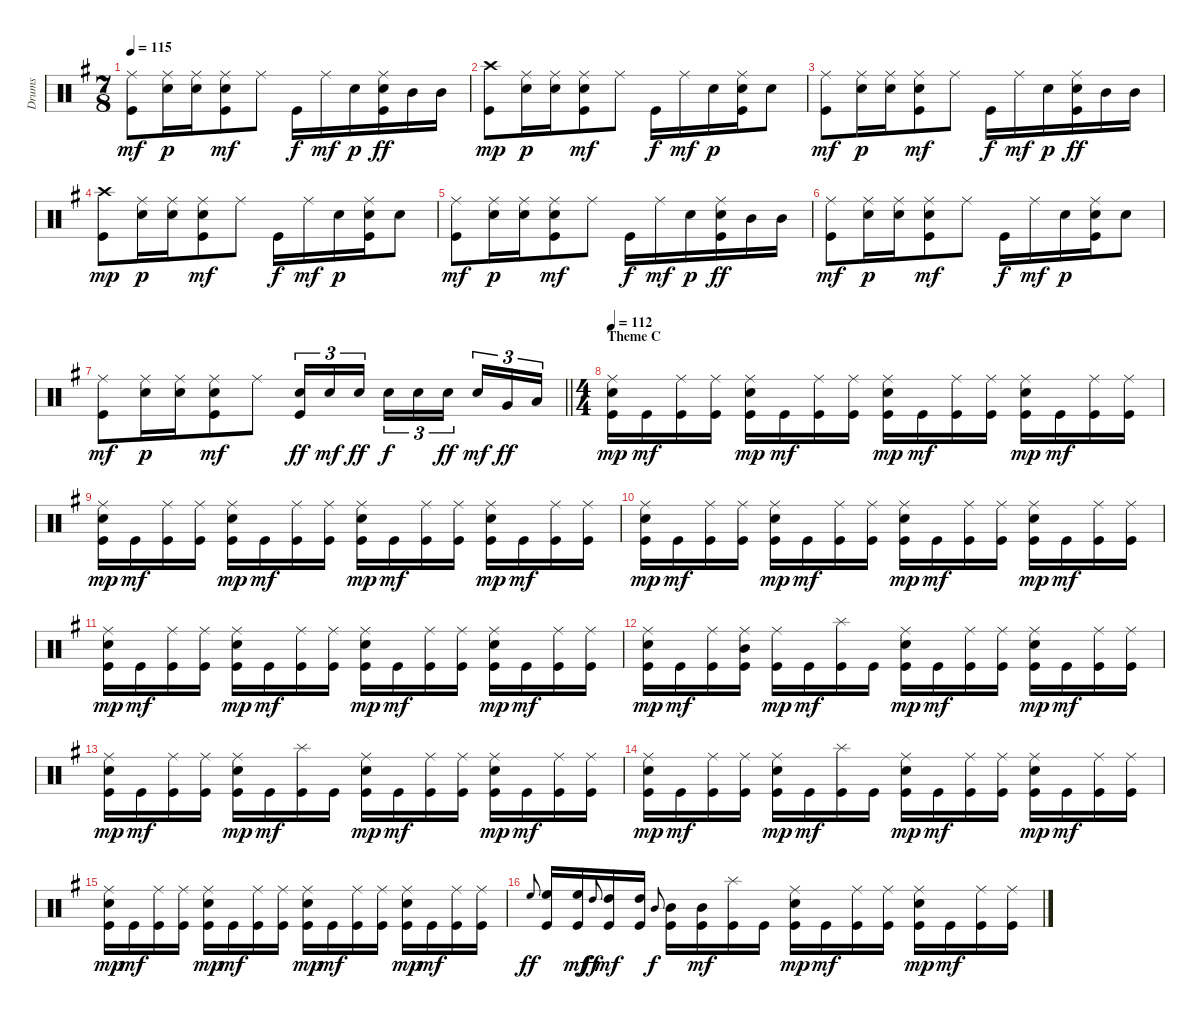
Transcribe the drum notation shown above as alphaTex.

\track ("Drums" "Drums") {instrument percussion}
\staff {score}
\articulation defaults
\ts (7 8)
\tempo 115
\clef neutral
\ks g
("Ride (middle)" "Kick (hit)").8{dy mf} ("Ride (middle)" "Snare (hit) 2").16{dy p} ("Ride (middle)" "Snare (hit) 2").16 ("Ride (middle)" "Snare (hit) 2" "Kick (hit)").8{dy mf} "Ride (middle)".8 "Kick (hit)".16{dy f} "Ride (middle)".16{dy mf} "Snare (hit) 2".16{dy p} ("Ride (middle)" "Snare (hit) 2" "Kick (hit)").16{dy ff} "Mid Tom (hit)".16 "Mid Tom (hit)".16 |
("Crash high (hit)" "Kick (hit)").8{dy mp} ("Ride (middle)" "Snare (hit) 2").16{dy p} ("Ride (middle)" "Snare (hit) 2").16 ("Ride (middle)" "Snare (hit) 2" "Kick (hit)").8{dy mf} "Ride (middle)".8 "Kick (hit)".16{dy f} "Ride (middle)".16{dy mf} "Snare (hit) 2".16{dy p} ("Ride (middle)" "Snare (hit) 2" "Kick (hit)").16 "Snare (hit) 2".8 |
("Ride (middle)" "Kick (hit)").8{dy mf} ("Ride (middle)" "Snare (hit) 2").16{dy p} ("Ride (middle)" "Snare (hit) 2").16 ("Ride (middle)" "Snare (hit) 2" "Kick (hit)").8{dy mf} "Ride (middle)".8 "Kick (hit)".16{dy f} "Ride (middle)".16{dy mf} "Snare (hit) 2".16{dy p} ("Ride (middle)" "Snare (hit) 2" "Kick (hit)").16{dy ff} "Mid Tom (hit)".16 "Mid Tom (hit)".16 |
("Crash high (hit)" "Kick (hit)").8{dy mp} ("Ride (middle)" "Snare (hit) 2").16{dy p} ("Ride (middle)" "Snare (hit) 2").16 ("Ride (middle)" "Snare (hit) 2" "Kick (hit)").8{dy mf} "Ride (middle)".8 "Kick (hit)".16{dy f} "Ride (middle)".16{dy mf} "Snare (hit) 2".16{dy p} ("Ride (middle)" "Snare (hit) 2" "Kick (hit)").16 "Snare (hit) 2".8 |
("Ride (middle)" "Kick (hit)").8{dy mf} ("Ride (middle)" "Snare (hit) 2").16{dy p} ("Ride (middle)" "Snare (hit) 2").16 ("Ride (middle)" "Snare (hit) 2" "Kick (hit)").8{dy mf} "Ride (middle)".8 "Kick (hit)".16{dy f} "Ride (middle)".16{dy mf} "Snare (hit) 2".16{dy p} ("Ride (middle)" "Snare (hit) 2" "Kick (hit)").16{dy ff} "Mid Tom (hit)".16 "Mid Tom (hit)".16 |
("Ride (middle)" "Kick (hit)").8{dy mf} ("Ride (middle)" "Snare (hit) 2").16{dy p} ("Ride (middle)" "Snare (hit) 2").16 ("Ride (middle)" "Snare (hit) 2" "Kick (hit)").8{dy mf} "Ride (middle)".8 "Kick (hit)".16{dy f} "Ride (middle)".16{dy mf} "Snare (hit) 2".16{dy p} ("Ride (middle)" "Snare (hit) 2" "Kick (hit)").16 "Snare (hit) 2".8 |
\barLineRight lightlight
("Ride (middle)" "Kick (hit)").8{dy mf} ("Ride (middle)" "Snare (hit) 2").16{dy p} ("Ride (middle)" "Snare (hit) 2").16 ("Ride (middle)" "Snare (hit) 2" "Kick (hit)").8{dy mf} "Ride (middle)".8 ("Electric Snare (hit)" "Kick (hit)").16{tu (3 2) dy ff} "Electric Snare (hit)".16{tu (3 2) dy mf} "Electric Snare (hit)".16{tu (3 2) dy ff} "Electric Snare (hit)".16{tu (3 2) dy f} "Electric Snare (hit)".16{tu (3 2)} "Electric Snare (hit)".16{tu (3 2) dy ff} "Electric Snare (hit)".16{tu (3 2) dy mf} "Very Low Tom (hit)".16{tu (3 2) dy ff} "Low Floor Tom (hit)".16{tu (3 2)} |
\ts (4 4)
\section ("" "Theme C")
\tempo 112
("Ride (middle)" "Snare (hit) 2" "Kick (hit)").16{dy mp} "Kick (hit)".16{dy mf} ("Ride (middle)" "Kick (hit)").16 ("Ride (middle)" "Kick (hit)").16 ("Ride (middle)" "Snare (hit) 2" "Kick (hit)").16{dy mp} "Kick (hit)".16{dy mf} ("Ride (middle)" "Kick (hit)").16 ("Ride (middle)" "Kick (hit)").16 ("Ride (middle)" "Snare (hit) 2" "Kick (hit)").16{dy mp} "Kick (hit)".16{dy mf} ("Ride (middle)" "Kick (hit)").16 ("Ride (middle)" "Kick (hit)").16 ("Ride (middle)" "Snare (hit) 2" "Kick (hit)").16{dy mp} "Kick (hit)".16{dy mf} ("Ride (middle)" "Kick (hit)").16 ("Ride (middle)" "Kick (hit)").16 |
("Ride (middle)" "Snare (hit) 2" "Kick (hit)").16{dy mp} "Kick (hit)".16{dy mf} ("Ride (middle)" "Kick (hit)").16 ("Ride (middle)" "Kick (hit)").16 ("Ride (middle)" "Snare (hit) 2" "Kick (hit)").16{dy mp} "Kick (hit)".16{dy mf} ("Ride (middle)" "Kick (hit)").16 ("Ride (middle)" "Kick (hit)").16 ("Ride (middle)" "Snare (hit) 2" "Kick (hit)").16{dy mp} "Kick (hit)".16{dy mf} ("Ride (middle)" "Kick (hit)").16 ("Ride (middle)" "Kick (hit)").16 ("Ride (middle)" "Snare (hit) 2" "Kick (hit)").16{dy mp} "Kick (hit)".16{dy mf} ("Ride (middle)" "Kick (hit)").16 ("Ride (middle)" "Kick (hit)").16 |
("Ride (middle)" "Snare (hit) 2" "Kick (hit)").16{dy mp} "Kick (hit)".16{dy mf} ("Ride (middle)" "Kick (hit)").16 ("Ride (middle)" "Kick (hit)").16 ("Ride (middle)" "Snare (hit) 2" "Kick (hit)").16{dy mp} "Kick (hit)".16{dy mf} ("Ride (middle)" "Kick (hit)").16 ("Ride (middle)" "Kick (hit)").16 ("Ride (middle)" "Snare (hit) 2" "Kick (hit)").16{dy mp} "Kick (hit)".16{dy mf} ("Ride (middle)" "Kick (hit)").16 ("Ride (middle)" "Kick (hit)").16 ("Ride (middle)" "Snare (hit) 2" "Kick (hit)").16{dy mp} "Kick (hit)".16{dy mf} ("Ride (middle)" "Kick (hit)").16 ("Ride (middle)" "Kick (hit)").16 |
("Ride (middle)" "Snare (hit) 2" "Kick (hit)").16{dy mp} "Kick (hit)".16{dy mf} ("Ride (middle)" "Kick (hit)").16 ("Ride (middle)" "Kick (hit)").16 ("Ride (middle)" "Snare (hit) 2" "Kick (hit)").16{dy mp} "Kick (hit)".16{dy mf} ("Ride (middle)" "Kick (hit)").16 ("Ride (middle)" "Kick (hit)").16 ("Ride (middle)" "Snare (hit) 2" "Kick (hit)").16{dy mp} "Kick (hit)".16{dy mf} ("Ride (middle)" "Kick (hit)").16 ("Ride (middle)" "Kick (hit)").16 ("Ride (middle)" "Snare (hit) 2" "Kick (hit)").16{dy mp} "Kick (hit)".16{dy mf} ("Ride (middle)" "Kick (hit)").16 ("Ride (middle)" "Kick (hit)").16 |
("Ride (middle)" "Snare (hit) 2" "Kick (hit)").16{dy mp} "Kick (hit)".16{dy mf} ("Ride (middle)" "Kick (hit)").16 ("Ride (middle)" "Mid Tom (hit)" "Kick (hit)").16 ("Ride (middle)" "Kick (hit)").16{dy mp} "Kick (hit)".16{dy mf} ("Splash (hit)" "Kick (hit)").16 "Kick (hit)".16 ("Ride (middle)" "Snare (hit) 2" "Kick (hit)").16{dy mp} "Kick (hit)".16{dy mf} ("Ride (middle)" "Kick (hit)").16 ("Ride (middle)" "Kick (hit)").16 ("Ride (middle)" "Snare (hit) 2" "Kick (hit)").16{dy mp} "Kick (hit)".16{dy mf} ("Ride (middle)" "Kick (hit)").16 ("Ride (middle)" "Kick (hit)").16 |
("Ride (middle)" "Snare (hit) 2" "Kick (hit)").16{dy mp} "Kick (hit)".16{dy mf} ("Ride (middle)" "Kick (hit)").16 ("Ride (middle)" "Kick (hit)").16 ("Ride (middle)" "Snare (hit) 2" "Kick (hit)").16{dy mp} "Kick (hit)".16{dy mf} ("Splash (hit)" "Kick (hit)").16 "Kick (hit)".16 ("Ride (middle)" "Snare (hit) 2" "Kick (hit)").16{dy mp} "Kick (hit)".16{dy mf} ("Ride (middle)" "Kick (hit)").16 ("Ride (middle)" "Kick (hit)").16 ("Ride (middle)" "Snare (hit) 2" "Kick (hit)").16{dy mp} "Kick (hit)".16{dy mf} ("Ride (middle)" "Kick (hit)").16 ("Ride (middle)" "Kick (hit)").16 |
("Ride (middle)" "Snare (hit) 2" "Kick (hit)").16{dy mp} "Kick (hit)".16{dy mf} ("Ride (middle)" "Kick (hit)").16 ("Ride (middle)" "Kick (hit)").16 ("Ride (middle)" "Snare (hit) 2" "Kick (hit)").16{dy mp} "Kick (hit)".16{dy mf} ("Splash (hit)" "Kick (hit)").16 "Kick (hit)".16 ("Ride (middle)" "Snare (hit) 2" "Kick (hit)").16{dy mp} "Kick (hit)".16{dy mf} ("Ride (middle)" "Kick (hit)").16 ("Ride (middle)" "Kick (hit)").16 ("Ride (middle)" "Snare (hit) 2" "Kick (hit)").16{dy mp} "Kick (hit)".16{dy mf} ("Ride (middle)" "Kick (hit)").16 ("Ride (middle)" "Kick (hit)").16 |
("Ride (middle)" "Snare (hit) 2" "Kick (hit)").16{dy mp} "Kick (hit)".16{dy mf} ("Ride (middle)" "Kick (hit)").16 ("Ride (middle)" "Kick (hit)").16 ("Ride (middle)" "Snare (hit) 2" "Kick (hit)").16{dy mp} "Kick (hit)".16{dy mf} ("Ride (middle)" "Kick (hit)").16 ("Ride (middle)" "Kick (hit)").16 ("Ride (middle)" "Snare (hit) 2" "Kick (hit)").16{dy mp} "Kick (hit)".16{dy mf} ("Ride (middle)" "Kick (hit)").16 ("Ride (middle)" "Kick (hit)").16 ("Ride (middle)" "Snare (hit) 2" "Kick (hit)").16{dy mp} "Kick (hit)".16{dy mf} ("Ride (middle)" "Kick (hit)").16 ("Ride (middle)" "Kick (hit)").16 |
"High Floor Tom (hit)".8{gr onbeat dy ff} ("High Floor Tom (hit)" "Kick (hit)").16 ("High Floor Tom (hit)" "Kick (hit)").16{dy mf} "High Tom (hit)".8{gr onbeat dy ff} ("High Tom (hit)" "Kick (hit)").16{dy mf} ("High Tom (hit)" "Kick (hit)").16 "Mid Tom (hit)".8{gr onbeat dy f} ("Mid Tom (hit)" "Kick (hit)").16 ("Mid Tom (hit)" "Kick (hit)").16{dy mf} ("Splash (hit)" "Kick (hit)").16 "Kick (hit)".16 ("Ride (middle)" "Snare (hit) 2" "Kick (hit)").16{dy mp} "Kick (hit)".16{dy mf} ("Ride (middle)" "Kick (hit)").16 ("Ride (middle)" "Kick (hit)").16 ("Ride (middle)" "Snare (hit) 2" "Kick (hit)").16{dy mp} "Kick (hit)".16{dy mf} ("Ride (middle)" "Kick (hit)").16 ("Ride (middle)" "Kick (hit)").16
